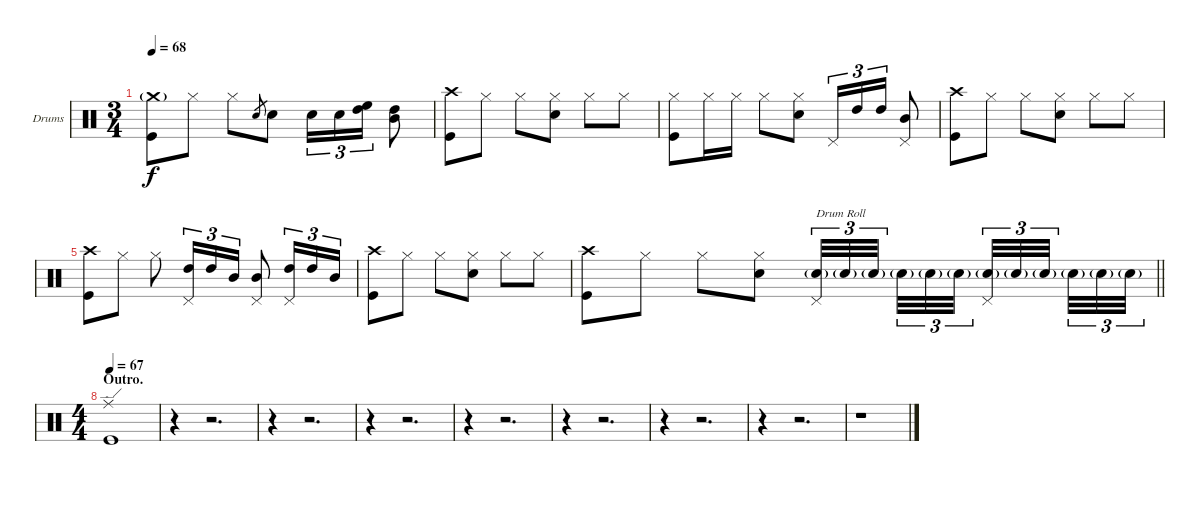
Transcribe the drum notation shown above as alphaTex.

\bracketExtendMode nobrackets
\firstSystemTrackNameOrientation horizontal
\otherSystemsTrackNameOrientation horizontal
\defaultBarNumberDisplay FirstOfSystem
\track ("Drumkit" "Drums") {instrument percussion}
\staff {score}
\articulation defaults
\ts (3 4)
\tempo 68
\clef neutral
\ks c
("Crash medium (hit)"{g} "Kick (hit)").8{dy f} "Hi-Hat (closed)".8 "Hi-Hat (closed)".8 "Snare (hit) 2".8{gr} "Snare (hit) 2".8 "Snare (hit) 2".16{tu (3 2)} "Snare (hit) 2".16{tu (3 2)} ("High Tom (hit)" "High Floor Tom (hit)").16{tu (3 2)} ("Mid Tom (hit)" "High Tom (hit)").8 |
("Crash high (hit)" "Kick (hit)").8 "Hi-Hat (closed)".8 "Hi-Hat (closed)".8 ("Hi-Hat (closed)" "Snare (hit) 2").8 "Hi-Hat (closed)".8 "Hi-Hat (closed)".8 |
("Hi-Hat (closed)" "Kick (hit)").8 "Hi-Hat (closed)".16 "Hi-Hat (closed)".16 "Hi-Hat (closed)".8 ("Hi-Hat (closed)" "Snare (hit) 2").8 "Pedal Hi-Hat (hit)".16{tu (3 2)} "High Tom (hit)".16{tu (3 2)} "High Tom (hit)".16{tu (3 2)} ("Pedal Hi-Hat (hit)" "Mid Tom (hit)").8 |
("Crash high (hit)" "Kick (hit)").8 "Hi-Hat (closed)".8 "Hi-Hat (closed)".8 ("Hi-Hat (closed)" "Snare (hit) 2").8 "Hi-Hat (closed)".8 "Hi-Hat (closed)".8 |
("Crash high (hit)" "Kick (hit)").8 "Hi-Hat (closed)".8 "Hi-Hat (closed)".8 ("Pedal Hi-Hat (hit)" "High Tom (hit)").16{tu (3 2)} "High Tom (hit)".16{tu (3 2)} "Mid Tom (hit)".16{tu (3 2)} ("Pedal Hi-Hat (hit)" "Mid Tom (hit)").8 ("Pedal Hi-Hat (hit)" "High Tom (hit)").16{tu (3 2)} "High Tom (hit)".16{tu (3 2)} "Mid Tom (hit)".16{tu (3 2)} |
("Crash high (hit)" "Kick (hit)").8 "Hi-Hat (closed)".8 "Hi-Hat (closed)".8 ("Hi-Hat (closed)" "Snare (hit) 2").8 "Hi-Hat (closed)".8 "Hi-Hat (closed)".8 |
\barLineRight lightlight
("Crash high (hit)" "Kick (hit)").8 "Hi-Hat (closed)".8 "Hi-Hat (closed)".8 ("Hi-Hat (closed)" "Snare (hit) 2").8 ("Pedal Hi-Hat (hit)" "Snare (hit) 2"{g}).32{tu (3 2) txt "Drum Roll"} "Snare (hit) 2"{g}.32{tu (3 2)} "Snare (hit) 2"{g}.32{tu (3 2)} "Snare (hit) 2"{g}.32{tu (3 2)} "Snare (hit) 2"{g}.32{tu (3 2)} "Snare (hit) 2"{g}.32{tu (3 2)} ("Pedal Hi-Hat (hit)" "Snare (hit) 2"{g}).32{tu (3 2)} "Snare (hit) 2"{g}.32{tu (3 2)} "Snare (hit) 2"{g}.32{tu (3 2)} "Snare (hit) 2"{g}.32{tu (3 2)} "Snare (hit) 2"{g}.32{tu (3 2)} "Snare (hit) 2"{g}.32{tu (3 2)} |
\ts (4 4)
\section ("" "Outro.")
\tempo 67
("Ride (edge)" "Kick (hit)").1 |
r.4 r.2{d} |
r.4 r.2{d} |
r.4 r.2{d} |
r.4 r.2{d} |
r.4 r.2{d} |
r.4 r.2{d} |
r.4 r.2{d} |
r.1
